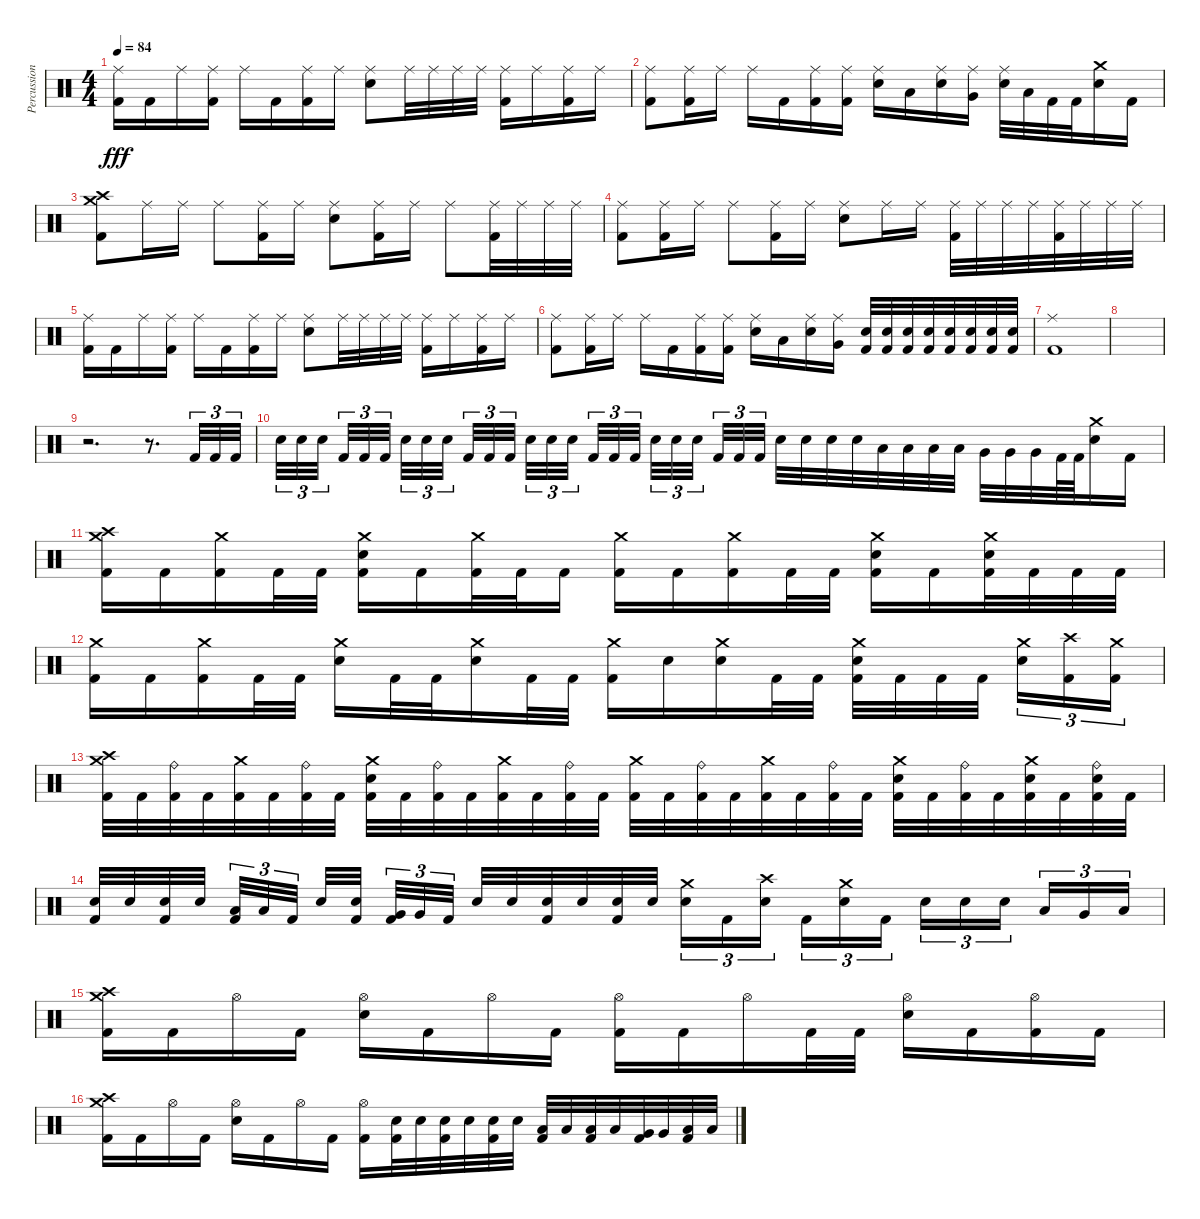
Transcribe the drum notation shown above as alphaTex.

\track ("Percussion" "Percussion") {instrument percussion}
\staff {score}
\articulation defaults
\ts (4 4)
\tempo 84
\clef neutral
\ks c
("Ride (middle)" "Kick (hit) 2").16{dy fff} "Kick (hit) 2".16 "Ride (middle)".16 ("Ride (middle)" "Kick (hit) 2").16 "Ride (middle)".16 "Kick (hit) 2".16 ("Ride (middle)" "Kick (hit) 2").16 "Ride (middle)".16 ("Ride (middle)" "Electric Snare (hit)").8 "Ride (middle)".32 "Ride (middle)".32 "Ride (middle)".32 "Ride (middle)".32 ("Ride (middle)" "Kick (hit) 2").16 "Ride (middle)".16 ("Ride (middle)" "Kick (hit) 2").16 "Ride (middle)".16 |
("Ride (middle)" "Kick (hit) 2").8 ("Ride (middle)" "Kick (hit) 2").16 "Ride (middle)".16 "Ride (middle)".16 "Kick (hit) 2".16 ("Ride (middle)" "Kick (hit) 2").16 ("Ride (middle)" "Kick (hit) 2").16 ("Ride (middle)" "Electric Snare (hit)").16 "Low Floor Tom (hit)".16 ("Ride (middle)" "Electric Snare (hit)").16 ("Ride (middle)" "Very Low Tom (hit)").16 ("Ride (middle)" "Electric Snare (hit)").32 "Low Floor Tom (hit)".32 "Kick (hit) 2".32 "Kick (hit) 2".32 ("Crash medium (hit)" "Electric Snare (hit)").16 "Kick (hit) 2".16 |
("Crash high (hit)" "Crash medium (hit)" "Kick (hit) 2").8 "Ride (middle)".16 "Ride (middle)".16 "Ride (middle)".8 ("Ride (middle)" "Kick (hit) 2").16 "Ride (middle)".16 ("Ride (middle)" "Electric Snare (hit)").8 ("Ride (middle)" "Kick (hit) 2").16 "Ride (middle)".16 "Ride (middle)".8 ("Ride (middle)" "Kick (hit) 2").32 "Ride (middle)".32 "Ride (middle)".32 "Ride (middle)".32 |
("Ride (middle)" "Kick (hit) 2").8 ("Ride (middle)" "Kick (hit) 2").16 "Ride (middle)".16 "Ride (middle)".8 ("Ride (middle)" "Kick (hit) 2").16 "Ride (middle)".16 ("Ride (middle)" "Electric Snare (hit)").8 "Ride (middle)".16 "Ride (middle)".16 ("Ride (middle)" "Kick (hit) 2").32 "Ride (middle)".32 "Ride (middle)".32 "Ride (middle)".32 ("Ride (middle)" "Kick (hit) 2").32 "Ride (middle)".32 "Ride (middle)".32 "Ride (middle)".32 |
("Ride (middle)" "Kick (hit) 2").16 "Kick (hit) 2".16 "Ride (middle)".16 ("Ride (middle)" "Kick (hit) 2").16 "Ride (middle)".16 "Kick (hit) 2".16 ("Ride (middle)" "Kick (hit) 2").16 "Ride (middle)".16 ("Ride (middle)" "Electric Snare (hit)").8 "Ride (middle)".32 "Ride (middle)".32 "Ride (middle)".32 "Ride (middle)".32 ("Ride (middle)" "Kick (hit) 2").16 "Ride (middle)".16 ("Ride (middle)" "Kick (hit) 2").16 "Ride (middle)".16 |
("Ride (middle)" "Kick (hit) 2").8 ("Ride (middle)" "Kick (hit) 2").16 "Ride (middle)".16 "Ride (middle)".16 "Kick (hit) 2".16 ("Ride (middle)" "Kick (hit) 2").16 ("Ride (middle)" "Kick (hit) 2").16 ("Ride (middle)" "Electric Snare (hit)").16 "Low Tom (hit)".16 ("Ride (middle)" "Electric Snare (hit)").16 ("Ride (middle)" "Very Low Tom (hit)").16 ("Electric Snare (hit)" "Kick (hit) 2").32 ("Electric Snare (hit)" "Kick (hit) 2").32 ("Electric Snare (hit)" "Kick (hit) 2").32 ("Electric Snare (hit)" "Kick (hit) 2").32 ("Electric Snare (hit)" "Kick (hit) 2").32 ("Electric Snare (hit)" "Kick (hit) 2").32 ("Electric Snare (hit)" "Kick (hit) 2").32 ("Electric Snare (hit)" "Kick (hit) 2").32 |
("Ride (middle)" "Kick (hit) 2").1 |
|
r.2{d} r.8{d} "Kick (hit) 2".32{tu (3 2)} "Kick (hit) 2".32{tu (3 2)} "Kick (hit) 2".32{tu (3 2)} |
"Electric Snare (hit)".32{tu (3 2)} "Electric Snare (hit)".32{tu (3 2)} "Electric Snare (hit)".32{tu (3 2) beam splitsecondary} "Kick (hit) 2".32{tu (3 2)} "Kick (hit) 2".32{tu (3 2)} "Kick (hit) 2".32{tu (3 2) beam splitsecondary} "Electric Snare (hit)".32{tu (3 2)} "Electric Snare (hit)".32{tu (3 2)} "Electric Snare (hit)".32{tu (3 2) beam splitsecondary} "Kick (hit) 2".32{tu (3 2)} "Kick (hit) 2".32{tu (3 2)} "Kick (hit) 2".32{tu (3 2)} "Electric Snare (hit)".32{tu (3 2)} "Electric Snare (hit)".32{tu (3 2)} "Electric Snare (hit)".32{tu (3 2) beam splitsecondary} "Kick (hit) 2".32{tu (3 2)} "Kick (hit) 2".32{tu (3 2)} "Kick (hit) 2".32{tu (3 2) beam splitsecondary} "Electric Snare (hit)".32{tu (3 2)} "Electric Snare (hit)".32{tu (3 2)} "Electric Snare (hit)".32{tu (3 2) beam splitsecondary} "Kick (hit) 2".32{tu (3 2)} "Kick (hit) 2".32{tu (3 2)} "Kick (hit) 2".32{tu (3 2)} "Electric Snare (hit)".32 "Electric Snare (hit)".32 "Electric Snare (hit)".32 "Electric Snare (hit)".32 "Low Tom (hit)".32 "Low Tom (hit)".32 "Low Tom (hit)".32 "Low Tom (hit)".32 "Very Low Tom (hit)".32 "Very Low Tom (hit)".32 "Very Low Tom (hit)".32 "Kick (hit) 2".64 "Kick (hit) 2".64 ("Crash medium (hit)" "Electric Snare (hit)").16 "Kick (hit) 2".16 |
("Crash high (hit)" "Crash medium (hit)" "Kick (hit) 2").16 "Kick (hit) 2".16 ("Crash medium (hit)" "Kick (hit) 2").16 "Kick (hit) 2".32 "Kick (hit) 2".32 ("Crash medium (hit)" "Electric Snare (hit)" "Kick (hit) 2").16 "Kick (hit) 2".16 ("Crash medium (hit)" "Kick (hit) 2").32 "Kick (hit) 2".32 "Kick (hit) 2".16 ("Crash medium (hit)" "Kick (hit) 2").16 "Kick (hit) 2".16 ("Crash medium (hit)" "Kick (hit) 2").16 "Kick (hit) 2".32 "Kick (hit) 2".32 ("Crash medium (hit)" "Electric Snare (hit)" "Kick (hit) 2").16 "Kick (hit) 2".16 ("Crash medium (hit)" "Electric Snare (hit)" "Kick (hit) 2").32 "Kick (hit) 2".32 "Kick (hit) 2".32 "Kick (hit) 2".32 |
("Crash medium (hit)" "Kick (hit) 2").16 "Kick (hit) 2".16 ("Crash medium (hit)" "Kick (hit) 2").16 "Kick (hit) 2".32 "Kick (hit) 2".32 ("Crash medium (hit)" "Electric Snare (hit)").16 "Kick (hit) 2".32 "Kick (hit) 2".32 ("Crash medium (hit)" "Electric Snare (hit)").16 "Kick (hit) 2".32 "Kick (hit) 2".32 ("Crash medium (hit)" "Kick (hit) 2").16 "Electric Snare (hit)".16 ("Crash medium (hit)" "Electric Snare (hit)").16 "Kick (hit) 2".32 "Kick (hit) 2".32 ("Crash medium (hit)" "Electric Snare (hit)" "Kick (hit) 2").32 "Kick (hit) 2".32 "Kick (hit) 2".32 "Kick (hit) 2".32{beam splitsecondary} ("Crash medium (hit)" "Electric Snare (hit)").16{tu (3 2)} ("Crash high (hit)" "Kick (hit) 2").16{tu (3 2)} ("Crash medium (hit)" "Kick (hit) 2").16{tu (3 2)} |
("Crash high (hit)" "Crash medium (hit)" "Kick (hit) 2").32 "Kick (hit) 2".32 ("Ride (bell)" "Kick (hit) 2").32 "Kick (hit) 2".32 ("Crash medium (hit)" "Kick (hit) 2").32 "Kick (hit) 2".32 ("Ride (bell)" "Kick (hit) 2").32 "Kick (hit) 2".32 ("Crash medium (hit)" "Electric Snare (hit)" "Kick (hit) 2").32 "Kick (hit) 2".32 ("Ride (bell)" "Kick (hit) 2").32 "Kick (hit) 2".32 ("Crash medium (hit)" "Kick (hit) 2").32 "Kick (hit) 2".32 ("Ride (bell)" "Kick (hit) 2").32 "Kick (hit) 2".32 ("Crash medium (hit)" "Kick (hit) 2").32 "Kick (hit) 2".32 ("Ride (bell)" "Kick (hit) 2").32 "Kick (hit) 2".32 ("Crash medium (hit)" "Kick (hit) 2").32 "Kick (hit) 2".32 ("Ride (bell)" "Kick (hit) 2").32 "Kick (hit) 2".32 ("Crash medium (hit)" "Electric Snare (hit)" "Kick (hit) 2").32 "Kick (hit) 2".32 ("Ride (bell)" "Kick (hit) 2").32 "Kick (hit) 2".32 ("Crash medium (hit)" "Electric Snare (hit)" "Kick (hit) 2").32 "Kick (hit) 2".32 ("Ride (bell)" "Electric Snare (hit)" "Kick (hit) 2").32 "Kick (hit) 2".32 |
("Electric Snare (hit)" "Kick (hit) 2").32 "Electric Snare (hit)".32 ("Electric Snare (hit)" "Kick (hit) 2").32 "Electric Snare (hit)".32{beam splitsecondary} ("Low Floor Tom (hit)" "Kick (hit) 2").32{tu (3 2)} "Low Floor Tom (hit)".32{tu (3 2)} "Kick (hit) 2".32{tu (3 2) beam splitsecondary} "Electric Snare (hit)".32 ("Electric Snare (hit)" "Kick (hit) 2").32 ("Very Low Tom (hit)" "Kick (hit) 2").32{tu (3 2)} "Very Low Tom (hit)".32{tu (3 2)} "Kick (hit) 2".32{tu (3 2) beam splitsecondary} "Electric Snare (hit)".32 "Electric Snare (hit)".32 ("Electric Snare (hit)" "Kick (hit) 2").32 "Electric Snare (hit)".32 ("Electric Snare (hit)" "Kick (hit) 2").32 "Electric Snare (hit)".32 ("Crash medium (hit)" "Electric Snare (hit)").16{tu (3 2)} "Kick (hit) 2".16{tu (3 2)} ("Crash high (hit)" "Electric Snare (hit)").16{tu (3 2) beam splitsecondary} "Kick (hit) 2".16{tu (3 2)} ("Crash medium (hit)" "Electric Snare (hit)").16{tu (3 2)} "Kick (hit) 2".16{tu (3 2)} "Electric Snare (hit)".16{tu (3 2)} "Electric Snare (hit)".16{tu (3 2)} "Electric Snare (hit)".16{tu (3 2) beam splitsecondary} "Low Tom (hit)".16{tu (3 2)} "Very Low Tom (hit)".16{tu (3 2)} "Low Floor Tom (hit)".16{tu (3 2)} |
("Crash high (hit)" "Crash medium (hit)" "Kick (hit) 2").16 "Kick (hit) 2".16 "Hi-Hat (open)".16 "Kick (hit) 2".16 ("Hi-Hat (open)" "Electric Snare (hit)").16 "Kick (hit) 2".16 "Hi-Hat (open)".16 "Kick (hit) 2".16 ("Hi-Hat (open)" "Kick (hit) 2").16 "Kick (hit) 2".16 "Hi-Hat (open)".16 "Kick (hit) 2".32 "Kick (hit) 2".32 ("Hi-Hat (open)" "Electric Snare (hit)").16 "Kick (hit) 2".16 ("Hi-Hat (open)" "Kick (hit) 2").16 "Kick (hit) 2".16 |
("Crash high (hit)" "Crash medium (hit)" "Kick (hit) 2").16 "Kick (hit) 2".16 "Hi-Hat (open)".16 "Kick (hit) 2".16 ("Hi-Hat (open)" "Electric Snare (hit)").16 "Kick (hit) 2".16 "Hi-Hat (open)".16 "Kick (hit) 2".16 ("Hi-Hat (open)" "Kick (hit) 2").16 ("Electric Snare (hit)" "Kick (hit) 2").32 "Electric Snare (hit)".32 ("Electric Snare (hit)" "Kick (hit) 2").32 "Electric Snare (hit)".32 ("Electric Snare (hit)" "Kick (hit) 2").32 "Electric Snare (hit)".32 ("Low Tom (hit)" "Kick (hit) 2").32 "Low Tom (hit)".32 ("Low Tom (hit)" "Kick (hit) 2").32 "Low Tom (hit)".32 ("Very Low Tom (hit)" "Kick (hit) 2").32 "Very Low Tom (hit)".32 ("Low Floor Tom (hit)" "Kick (hit) 2").32 "Low Floor Tom (hit)".32
